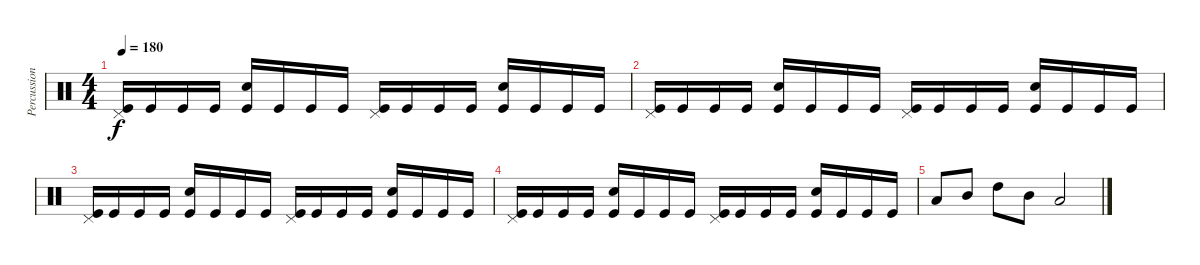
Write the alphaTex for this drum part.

\track ("Percussion" "Percussion") {instrument percussion}
\staff {score}
\articulation defaults
\ts (4 4)
\tempo 180
\clef neutral
\ks c
("Pedal Hi-Hat (hit)" "Kick (hit)").16{dy f} "Kick (hit)".16 "Kick (hit)".16 "Kick (hit)".16 ("Electric Snare (hit)" "Kick (hit)").16 "Kick (hit)".16 "Kick (hit)".16 "Kick (hit)".16 ("Pedal Hi-Hat (hit)" "Kick (hit)").16 "Kick (hit)".16 "Kick (hit)".16 "Kick (hit)".16 ("Electric Snare (hit)" "Kick (hit)").16 "Kick (hit)".16 "Kick (hit)".16 "Kick (hit)".16 |
("Pedal Hi-Hat (hit)" "Kick (hit)").16 "Kick (hit)".16 "Kick (hit)".16 "Kick (hit)".16 ("Electric Snare (hit)" "Kick (hit)").16 "Kick (hit)".16 "Kick (hit)".16 "Kick (hit)".16 ("Pedal Hi-Hat (hit)" "Kick (hit)").16 "Kick (hit)".16 "Kick (hit)".16 "Kick (hit)".16 ("Electric Snare (hit)" "Kick (hit)").16 "Kick (hit)".16 "Kick (hit)".16 "Kick (hit)".16 |
("Pedal Hi-Hat (hit)" "Kick (hit)").16 "Kick (hit)".16 "Kick (hit)".16 "Kick (hit)".16 ("Electric Snare (hit)" "Kick (hit)").16 "Kick (hit)".16 "Kick (hit)".16 "Kick (hit)".16 ("Pedal Hi-Hat (hit)" "Kick (hit)").16 "Kick (hit)".16 "Kick (hit)".16 "Kick (hit)".16 ("Electric Snare (hit)" "Kick (hit)").16 "Kick (hit)".16 "Kick (hit)".16 "Kick (hit)".16 |
("Pedal Hi-Hat (hit)" "Kick (hit)").16 "Kick (hit)".16 "Kick (hit)".16 "Kick (hit)".16 ("Electric Snare (hit)" "Kick (hit)").16 "Kick (hit)".16 "Kick (hit)".16 "Kick (hit)".16 ("Pedal Hi-Hat (hit)" "Kick (hit)").16 "Kick (hit)".16 "Kick (hit)".16 "Kick (hit)".16 ("Electric Snare (hit)" "Kick (hit)").16 "Kick (hit)".16 "Kick (hit)".16 "Kick (hit)".16 |
"Low Tom (hit)".8 "Mid Tom (hit)".8 "High Tom (hit)".8 "Mid Tom (hit)".8 "Low Floor Tom (hit)".2
